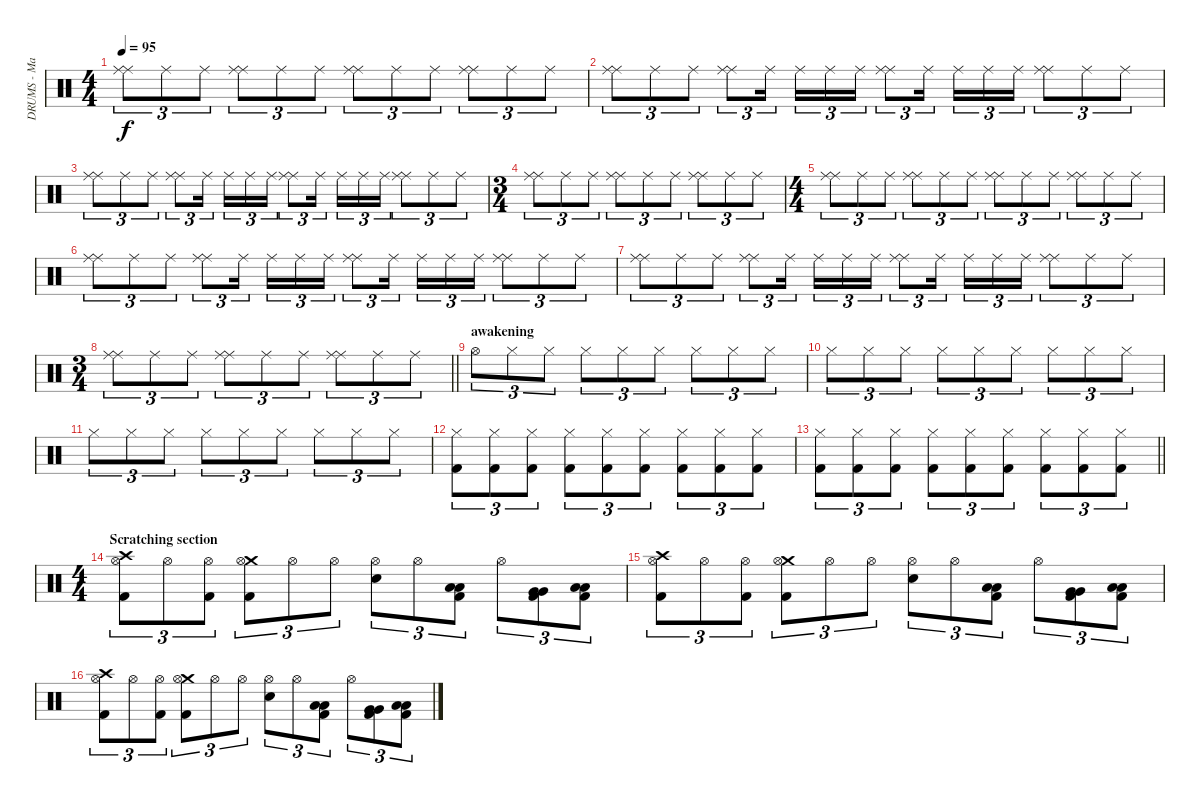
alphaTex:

\track ("DRUMS - Mario Duplantier" "DRUMS - Ma") {instrument percussion}
\staff {score}
\articulation defaults
\ts (4 4)
\tempo 95
\clef neutral
\ks c
("Ride (middle)" "Ride (middle)").8{tu (3 2) dy f} "Ride (middle)".8{tu (3 2)} "Ride (middle)".8{tu (3 2)} ("Ride (middle)" "Ride (middle)").8{tu (3 2)} "Ride (middle)".8{tu (3 2)} "Ride (middle)".8{tu (3 2)} ("Ride (middle)" "Ride (middle)").8{tu (3 2)} "Ride (middle)".8{tu (3 2)} "Ride (middle)".8{tu (3 2)} ("Ride (middle)" "Ride (middle)").8{tu (3 2)} "Ride (middle)".8{tu (3 2)} "Ride (middle)".8{tu (3 2)} |
("Ride (middle)" "Ride (middle)").8{tu (3 2)} "Ride (middle)".8{tu (3 2)} "Ride (middle)".8{tu (3 2)} ("Ride (middle)" "Ride (middle)").8{tu (3 2)} "Ride (middle)".16{tu (3 2) beam splitsecondary} "Ride (middle)".16{tu (3 2)} "Ride (middle)".16{tu (3 2)} "Ride (middle)".16{tu (3 2)} ("Ride (middle)" "Ride (middle)").8{tu (3 2)} "Ride (middle)".16{tu (3 2) beam splitsecondary} "Ride (middle)".16{tu (3 2)} "Ride (middle)".16{tu (3 2)} "Ride (middle)".16{tu (3 2)} ("Ride (middle)" "Ride (middle)").8{tu (3 2)} "Ride (middle)".8{tu (3 2)} "Ride (middle)".8{tu (3 2)} |
("Ride (middle)" "Ride (middle)").8{tu (3 2)} "Ride (middle)".8{tu (3 2)} "Ride (middle)".8{tu (3 2)} ("Ride (middle)" "Ride (middle)").8{tu (3 2)} "Ride (middle)".16{tu (3 2) beam splitsecondary} "Ride (middle)".16{tu (3 2)} "Ride (middle)".16{tu (3 2)} "Ride (middle)".16{tu (3 2)} ("Ride (middle)" "Ride (middle)").8{tu (3 2)} "Ride (middle)".16{tu (3 2) beam splitsecondary} "Ride (middle)".16{tu (3 2)} "Ride (middle)".16{tu (3 2)} "Ride (middle)".16{tu (3 2)} ("Ride (middle)" "Ride (middle)").8{tu (3 2)} "Ride (middle)".8{tu (3 2)} "Ride (middle)".8{tu (3 2)} |
\ts (3 4)
("Ride (middle)" "Ride (middle)").8{tu (3 2)} "Ride (middle)".8{tu (3 2)} "Ride (middle)".8{tu (3 2)} ("Ride (middle)" "Ride (middle)").8{tu (3 2)} "Ride (middle)".8{tu (3 2)} "Ride (middle)".8{tu (3 2)} ("Ride (middle)" "Ride (middle)").8{tu (3 2)} "Ride (middle)".8{tu (3 2)} "Ride (middle)".8{tu (3 2)} |
\ts (4 4)
("Ride (middle)" "Ride (middle)").8{tu (3 2)} "Ride (middle)".8{tu (3 2)} "Ride (middle)".8{tu (3 2)} ("Ride (middle)" "Ride (middle)").8{tu (3 2)} "Ride (middle)".8{tu (3 2)} "Ride (middle)".8{tu (3 2)} ("Ride (middle)" "Ride (middle)").8{tu (3 2)} "Ride (middle)".8{tu (3 2)} "Ride (middle)".8{tu (3 2)} ("Ride (middle)" "Ride (middle)").8{tu (3 2)} "Ride (middle)".8{tu (3 2)} "Ride (middle)".8{tu (3 2)} |
("Ride (middle)" "Ride (middle)").8{tu (3 2)} "Ride (middle)".8{tu (3 2)} "Ride (middle)".8{tu (3 2)} ("Ride (middle)" "Ride (middle)").8{tu (3 2)} "Ride (middle)".16{tu (3 2) beam splitsecondary} "Ride (middle)".16{tu (3 2)} "Ride (middle)".16{tu (3 2)} "Ride (middle)".16{tu (3 2)} ("Ride (middle)" "Ride (middle)").8{tu (3 2)} "Ride (middle)".16{tu (3 2) beam splitsecondary} "Ride (middle)".16{tu (3 2)} "Ride (middle)".16{tu (3 2)} "Ride (middle)".16{tu (3 2)} ("Ride (middle)" "Ride (middle)").8{tu (3 2)} "Ride (middle)".8{tu (3 2)} "Ride (middle)".8{tu (3 2)} |
("Ride (middle)" "Ride (middle)").8{tu (3 2)} "Ride (middle)".8{tu (3 2)} "Ride (middle)".8{tu (3 2)} ("Ride (middle)" "Ride (middle)").8{tu (3 2)} "Ride (middle)".16{tu (3 2) beam splitsecondary} "Ride (middle)".16{tu (3 2)} "Ride (middle)".16{tu (3 2)} "Ride (middle)".16{tu (3 2)} ("Ride (middle)" "Ride (middle)").8{tu (3 2)} "Ride (middle)".16{tu (3 2) beam splitsecondary} "Ride (middle)".16{tu (3 2)} "Ride (middle)".16{tu (3 2)} "Ride (middle)".16{tu (3 2)} ("Ride (middle)" "Ride (middle)").8{tu (3 2)} "Ride (middle)".8{tu (3 2)} "Ride (middle)".8{tu (3 2)} |
\ts (3 4)
\barLineRight lightlight
("Ride (middle)" "Ride (middle)").8{tu (3 2)} "Ride (middle)".8{tu (3 2)} "Ride (middle)".8{tu (3 2)} ("Ride (middle)" "Ride (middle)").8{tu (3 2)} "Ride (middle)".8{tu (3 2)} "Ride (middle)".8{tu (3 2)} ("Ride (middle)" "Ride (middle)").8{tu (3 2)} "Ride (middle)".8{tu (3 2)} "Ride (middle)".8{tu (3 2)} |
\section ("" "awakening")
"Hi-Hat (open)".8{tu (3 2)} "Hi-Hat (closed)".8{tu (3 2)} "Hi-Hat (closed)".8{tu (3 2)} "Hi-Hat (closed)".8{tu (3 2)} "Hi-Hat (closed)".8{tu (3 2)} "Hi-Hat (closed)".8{tu (3 2)} "Hi-Hat (closed)".8{tu (3 2)} "Hi-Hat (closed)".8{tu (3 2)} "Hi-Hat (closed)".8{tu (3 2)} |
"Hi-Hat (closed)".8{tu (3 2)} "Hi-Hat (closed)".8{tu (3 2)} "Hi-Hat (closed)".8{tu (3 2)} "Hi-Hat (closed)".8{tu (3 2)} "Hi-Hat (closed)".8{tu (3 2)} "Hi-Hat (closed)".8{tu (3 2)} "Hi-Hat (closed)".8{tu (3 2)} "Hi-Hat (closed)".8{tu (3 2)} "Hi-Hat (closed)".8{tu (3 2)} |
"Hi-Hat (closed)".8{tu (3 2)} "Hi-Hat (closed)".8{tu (3 2)} "Hi-Hat (closed)".8{tu (3 2)} "Hi-Hat (closed)".8{tu (3 2)} "Hi-Hat (closed)".8{tu (3 2)} "Hi-Hat (closed)".8{tu (3 2)} "Hi-Hat (closed)".8{tu (3 2)} "Hi-Hat (closed)".8{tu (3 2)} "Hi-Hat (closed)".8{tu (3 2)} |
("Hi-Hat (closed)" "Kick (hit) 2").8{tu (3 2)} ("Hi-Hat (closed)" "Kick (hit) 2").8{tu (3 2)} ("Hi-Hat (closed)" "Kick (hit) 2").8{tu (3 2)} ("Hi-Hat (closed)" "Kick (hit) 2").8{tu (3 2)} ("Hi-Hat (closed)" "Kick (hit) 2").8{tu (3 2)} ("Hi-Hat (closed)" "Kick (hit) 2").8{tu (3 2)} ("Hi-Hat (closed)" "Kick (hit) 2").8{tu (3 2)} ("Hi-Hat (closed)" "Kick (hit) 2").8{tu (3 2)} ("Hi-Hat (closed)" "Kick (hit) 2").8{tu (3 2)} |
\barLineRight lightlight
("Hi-Hat (closed)" "Kick (hit) 2").8{tu (3 2)} ("Hi-Hat (closed)" "Kick (hit) 2").8{tu (3 2)} ("Hi-Hat (closed)" "Kick (hit) 2").8{tu (3 2)} ("Hi-Hat (closed)" "Kick (hit) 2").8{tu (3 2)} ("Hi-Hat (closed)" "Kick (hit) 2").8{tu (3 2)} ("Hi-Hat (closed)" "Kick (hit) 2").8{tu (3 2)} ("Hi-Hat (closed)" "Kick (hit) 2").8{tu (3 2)} ("Hi-Hat (closed)" "Kick (hit) 2").8{tu (3 2)} ("Hi-Hat (closed)" "Kick (hit) 2").8{tu (3 2)} |
\ts (4 4)
\section ("" "Scratching section")
("Crash high (hit)" "Hi-Hat (open)" "Kick (hit) 2").8{tu (3 2)} "Hi-Hat (open)".8{tu (3 2)} ("Hi-Hat (open)" "Kick (hit) 2").8{tu (3 2)} ("Crash medium (hit)" "Hi-Hat (open)" "Kick (hit) 2").8{tu (3 2)} "Hi-Hat (open)".8{tu (3 2)} "Hi-Hat (open)".8{tu (3 2)} ("Hi-Hat (open)" "Electric Snare (hit)").8{tu (3 2)} "Hi-Hat (open)".8{tu (3 2)} ("Low Floor Tom (hit)" "Low Floor Tom (hit)" "Kick (hit) 2").8{tu (3 2)} "Hi-Hat (open)".8{tu (3 2)} ("Very Low Tom (hit)" "Very Low Tom (hit)" "Kick (hit) 2").8{tu (3 2)} ("Low Floor Tom (hit)" "Low Floor Tom (hit)" "Kick (hit) 2").8{tu (3 2)} |
("Crash high (hit)" "Hi-Hat (open)" "Kick (hit) 2").8{tu (3 2)} "Hi-Hat (open)".8{tu (3 2)} ("Hi-Hat (open)" "Kick (hit) 2").8{tu (3 2)} ("Crash medium (hit)" "Hi-Hat (open)" "Kick (hit) 2").8{tu (3 2)} "Hi-Hat (open)".8{tu (3 2)} "Hi-Hat (open)".8{tu (3 2)} ("Hi-Hat (open)" "Electric Snare (hit)").8{tu (3 2)} "Hi-Hat (open)".8{tu (3 2)} ("Low Floor Tom (hit)" "Low Floor Tom (hit)" "Kick (hit) 2").8{tu (3 2)} "Hi-Hat (open)".8{tu (3 2)} ("Very Low Tom (hit)" "Very Low Tom (hit)" "Kick (hit) 2").8{tu (3 2)} ("Low Floor Tom (hit)" "Low Floor Tom (hit)" "Kick (hit) 2").8{tu (3 2)} |
("Crash high (hit)" "Hi-Hat (open)" "Kick (hit) 2").8{tu (3 2)} "Hi-Hat (open)".8{tu (3 2)} ("Hi-Hat (open)" "Kick (hit) 2").8{tu (3 2)} ("Crash medium (hit)" "Hi-Hat (open)" "Kick (hit) 2").8{tu (3 2)} "Hi-Hat (open)".8{tu (3 2)} "Hi-Hat (open)".8{tu (3 2)} ("Hi-Hat (open)" "Electric Snare (hit)").8{tu (3 2)} "Hi-Hat (open)".8{tu (3 2)} ("Low Floor Tom (hit)" "Low Floor Tom (hit)" "Kick (hit) 2").8{tu (3 2)} "Hi-Hat (open)".8{tu (3 2)} ("Very Low Tom (hit)" "Very Low Tom (hit)" "Kick (hit) 2").8{tu (3 2)} ("Low Floor Tom (hit)" "Low Floor Tom (hit)" "Kick (hit) 2").8{tu (3 2)}
